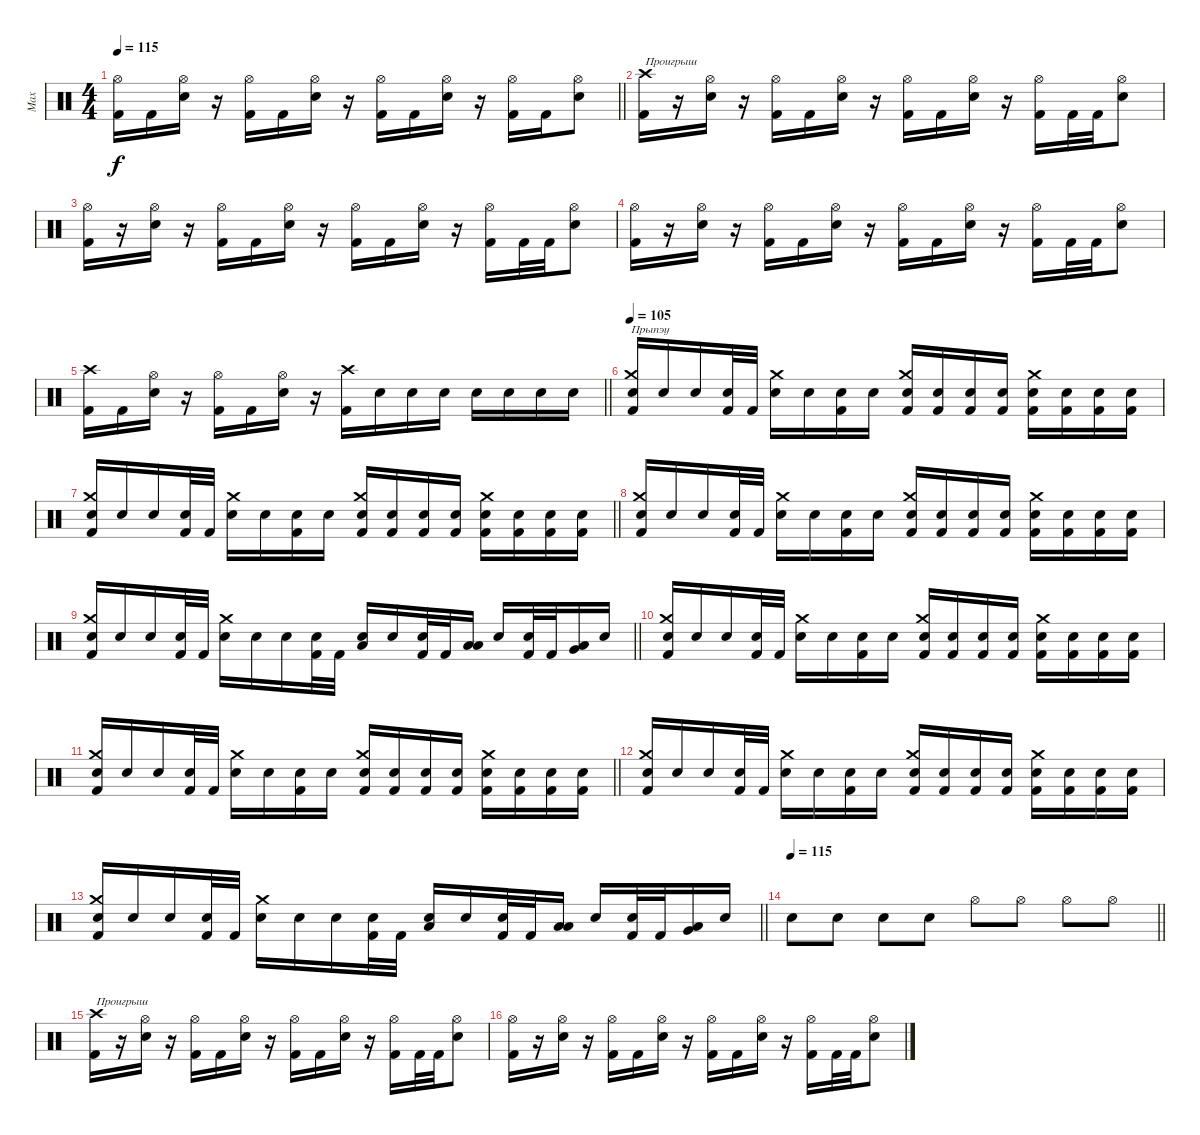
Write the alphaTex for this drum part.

\track ("Max" "Max") {instrument percussion}
\staff {score}
\articulation defaults
\ts (4 4)
\tempo 115
\clef neutral
\barLineRight lightlight
\ks c
("Hi-Hat (open)" "Kick (hit) 2").16{dy f} "Kick (hit) 2".16 ("Hi-Hat (open)" "Electric Snare (hit)").16 r.16 ("Hi-Hat (open)" "Kick (hit) 2").16 "Kick (hit) 2".16 ("Hi-Hat (open)" "Electric Snare (hit)").16 r.16 ("Hi-Hat (open)" "Kick (hit) 2").16 "Kick (hit) 2".16 ("Hi-Hat (open)" "Electric Snare (hit)").16 r.16 ("Hi-Hat (open)" "Kick (hit) 2").16 "Kick (hit) 2".16 ("Hi-Hat (open)" "Electric Snare (hit)").8 |
("Crash high (hit)" "Kick (hit) 2").16{txt "Проигрыш"} r.16 ("Hi-Hat (open)" "Electric Snare (hit)").16 r.16 ("Hi-Hat (open)" "Kick (hit) 2").16 "Kick (hit) 2".16 ("Hi-Hat (open)" "Electric Snare (hit)").16 r.16 ("Hi-Hat (open)" "Kick (hit) 2").16 "Kick (hit) 2".16 ("Hi-Hat (open)" "Electric Snare (hit)").16 r.16 ("Hi-Hat (open)" "Kick (hit) 2").16 "Kick (hit) 2".32 "Kick (hit) 2".32 ("Hi-Hat (open)" "Electric Snare (hit)").8 |
("Hi-Hat (open)" "Kick (hit) 2").16 r.16 ("Hi-Hat (open)" "Electric Snare (hit)").16 r.16 ("Hi-Hat (open)" "Kick (hit) 2").16 "Kick (hit) 2".16 ("Hi-Hat (open)" "Electric Snare (hit)").16 r.16 ("Hi-Hat (open)" "Kick (hit) 2").16 "Kick (hit) 2".16 ("Hi-Hat (open)" "Electric Snare (hit)").16 r.16 ("Hi-Hat (open)" "Kick (hit) 2").16 "Kick (hit) 2".32 "Kick (hit) 2".32 ("Hi-Hat (open)" "Electric Snare (hit)").8 |
("Hi-Hat (open)" "Kick (hit) 2").16 r.16 ("Hi-Hat (open)" "Electric Snare (hit)").16 r.16 ("Hi-Hat (open)" "Kick (hit) 2").16 "Kick (hit) 2".16 ("Hi-Hat (open)" "Electric Snare (hit)").16 r.16 ("Hi-Hat (open)" "Kick (hit) 2").16 "Kick (hit) 2".16 ("Hi-Hat (open)" "Electric Snare (hit)").16 r.16 ("Hi-Hat (open)" "Kick (hit) 2").16 "Kick (hit) 2".32 "Kick (hit) 2".32 ("Hi-Hat (open)" "Electric Snare (hit)").8 |
\barLineRight lightlight
("Crash high (hit)" "Kick (hit) 2").16 "Kick (hit) 2".16 ("Hi-Hat (open)" "Electric Snare (hit)").16 r.16 ("Hi-Hat (open)" "Kick (hit) 2").16 "Kick (hit) 2".16 ("Hi-Hat (open)" "Electric Snare (hit)").16 r.16 ("Crash high (hit)" "Kick (hit) 2").16 "Electric Snare (hit)".16 "Electric Snare (hit)".16 "Electric Snare (hit)".16 "Electric Snare (hit)".16 "Electric Snare (hit)".16 "Electric Snare (hit)".16 "Electric Snare (hit)".16 |
\tempo 105
("Crash medium (hit)" "Snare (hit)" "Kick (hit) 2").16{txt "Прыпэу "} "Snare (hit)".16 "Snare (hit)".16 ("Snare (hit)" "Kick (hit) 2").32 "Kick (hit) 2".32 ("Crash medium (hit)" "Electric Snare (hit)").16 "Snare (hit)".16 ("Snare (hit)" "Kick (hit) 2").16 "Snare (hit)".16 ("Crash medium (hit)" "Snare (hit)" "Kick (hit) 2").16 ("Snare (hit)" "Kick (hit) 2").16 ("Snare (hit)" "Kick (hit) 2").16 ("Snare (hit)" "Kick (hit) 2").16 ("Crash medium (hit)" "Electric Snare (hit)" "Kick (hit) 2").16 ("Snare (hit)" "Kick (hit) 2").16 ("Snare (hit)" "Kick (hit) 2").16 ("Snare (hit)" "Kick (hit) 2").16 |
\barLineRight lightlight
("Crash medium (hit)" "Snare (hit)" "Kick (hit) 2").16 "Snare (hit)".16 "Snare (hit)".16 ("Snare (hit)" "Kick (hit) 2").32 "Kick (hit) 2".32 ("Crash medium (hit)" "Electric Snare (hit)").16 "Snare (hit)".16 ("Snare (hit)" "Kick (hit) 2").16 "Snare (hit)".16 ("Crash medium (hit)" "Snare (hit)" "Kick (hit) 2").16 ("Snare (hit)" "Kick (hit) 2").16 ("Snare (hit)" "Kick (hit) 2").16 ("Snare (hit)" "Kick (hit) 2").16 ("Crash medium (hit)" "Electric Snare (hit)" "Kick (hit) 2").16 ("Snare (hit)" "Kick (hit) 2").16 ("Snare (hit)" "Kick (hit) 2").16 ("Snare (hit)" "Kick (hit) 2").16 |
("Crash medium (hit)" "Snare (hit)" "Kick (hit) 2").16 "Snare (hit)".16 "Snare (hit)".16 ("Snare (hit)" "Kick (hit) 2").32 "Kick (hit) 2".32 ("Crash medium (hit)" "Electric Snare (hit)").16 "Snare (hit)".16 ("Snare (hit)" "Kick (hit) 2").16 "Snare (hit)".16 ("Crash medium (hit)" "Snare (hit)" "Kick (hit) 2").16 ("Snare (hit)" "Kick (hit) 2").16 ("Snare (hit)" "Kick (hit) 2").16 ("Snare (hit)" "Kick (hit) 2").16 ("Crash medium (hit)" "Electric Snare (hit)" "Kick (hit) 2").16 ("Snare (hit)" "Kick (hit) 2").16 ("Snare (hit)" "Kick (hit) 2").16 ("Snare (hit)" "Kick (hit) 2").16 |
\barLineRight lightlight
("Crash medium (hit)" "Snare (hit)" "Kick (hit) 2").16 "Snare (hit)".16 "Snare (hit)".16 ("Snare (hit)" "Kick (hit) 2").32 "Kick (hit) 2".32 ("Crash medium (hit)" "Electric Snare (hit)").16 "Snare (hit)".16 "Snare (hit)".16 ("Snare (hit)" "Kick (hit) 2").32 "Kick (hit) 2".32 ("Low Floor Tom (hit)" "Electric Snare (hit)").16 "Snare (hit)".16 ("Snare (hit)" "Kick (hit) 2").32 "Kick (hit) 2".32 ("Low Floor Tom (hit)" "Low Tom (hit)").16 "Snare (hit)".16 ("Snare (hit)" "Kick (hit) 2").32 "Kick (hit) 2".32 ("Low Floor Tom (hit)" "Very Low Tom (hit)").16 "Snare (hit)".16 |
("Crash medium (hit)" "Snare (hit)" "Kick (hit) 2").16 "Snare (hit)".16 "Snare (hit)".16 ("Snare (hit)" "Kick (hit) 2").32 "Kick (hit) 2".32 ("Crash medium (hit)" "Electric Snare (hit)").16 "Snare (hit)".16 ("Snare (hit)" "Kick (hit) 2").16 "Snare (hit)".16 ("Crash medium (hit)" "Snare (hit)" "Kick (hit) 2").16 ("Snare (hit)" "Kick (hit) 2").16 ("Snare (hit)" "Kick (hit) 2").16 ("Snare (hit)" "Kick (hit) 2").16 ("Crash medium (hit)" "Electric Snare (hit)" "Kick (hit) 2").16 ("Snare (hit)" "Kick (hit) 2").16 ("Snare (hit)" "Kick (hit) 2").16 ("Snare (hit)" "Kick (hit) 2").16 |
\barLineRight lightlight
("Crash medium (hit)" "Snare (hit)" "Kick (hit) 2").16 "Snare (hit)".16 "Snare (hit)".16 ("Snare (hit)" "Kick (hit) 2").32 "Kick (hit) 2".32 ("Crash medium (hit)" "Electric Snare (hit)").16 "Snare (hit)".16 ("Snare (hit)" "Kick (hit) 2").16 "Snare (hit)".16 ("Crash medium (hit)" "Snare (hit)" "Kick (hit) 2").16 ("Snare (hit)" "Kick (hit) 2").16 ("Snare (hit)" "Kick (hit) 2").16 ("Snare (hit)" "Kick (hit) 2").16 ("Crash medium (hit)" "Electric Snare (hit)" "Kick (hit) 2").16 ("Snare (hit)" "Kick (hit) 2").16 ("Snare (hit)" "Kick (hit) 2").16 ("Snare (hit)" "Kick (hit) 2").16 |
("Crash medium (hit)" "Snare (hit)" "Kick (hit) 2").16 "Snare (hit)".16 "Snare (hit)".16 ("Snare (hit)" "Kick (hit) 2").32 "Kick (hit) 2".32 ("Crash medium (hit)" "Electric Snare (hit)").16 "Snare (hit)".16 ("Snare (hit)" "Kick (hit) 2").16 "Snare (hit)".16 ("Crash medium (hit)" "Snare (hit)" "Kick (hit) 2").16 ("Snare (hit)" "Kick (hit) 2").16 ("Snare (hit)" "Kick (hit) 2").16 ("Snare (hit)" "Kick (hit) 2").16 ("Crash medium (hit)" "Electric Snare (hit)" "Kick (hit) 2").16 ("Snare (hit)" "Kick (hit) 2").16 ("Snare (hit)" "Kick (hit) 2").16 ("Snare (hit)" "Kick (hit) 2").16 |
\barLineRight lightlight
("Crash medium (hit)" "Snare (hit)" "Kick (hit) 2").16 "Snare (hit)".16 "Snare (hit)".16 ("Snare (hit)" "Kick (hit) 2").32 "Kick (hit) 2".32 ("Crash medium (hit)" "Electric Snare (hit)").16 "Snare (hit)".16 "Snare (hit)".16 ("Snare (hit)" "Kick (hit) 2").32 "Kick (hit) 2".32 ("Low Floor Tom (hit)" "Electric Snare (hit)").16 "Snare (hit)".16 ("Snare (hit)" "Kick (hit) 2").32 "Kick (hit) 2".32 ("Low Floor Tom (hit)" "Low Tom (hit)").16 "Snare (hit)".16 ("Snare (hit)" "Kick (hit) 2").32 "Kick (hit) 2".32 ("Low Floor Tom (hit)" "Very Low Tom (hit)").16 "Snare (hit)".16 |
\tempo 115
\barLineRight lightlight "Snare (hit)".8 "Snare (hit)".8 "Snare (hit)".8 "Snare (hit)".8 "Hi-Hat (open)".8 "Hi-Hat (open)".8 "Hi-Hat (open)".8 "Hi-Hat (open)".8
|
("Crash high (hit)" "Kick (hit) 2").16{txt "Проигрыш"} r.16 ("Hi-Hat (open)" "Electric Snare (hit)").16 r.16 ("Hi-Hat (open)" "Kick (hit) 2").16 "Kick (hit) 2".16 ("Hi-Hat (open)" "Electric Snare (hit)").16 r.16 ("Hi-Hat (open)" "Kick (hit) 2").16 "Kick (hit) 2".16 ("Hi-Hat (open)" "Electric Snare (hit)").16 r.16 ("Hi-Hat (open)" "Kick (hit) 2").16 "Kick (hit) 2".32 "Kick (hit) 2".32 ("Hi-Hat (open)" "Electric Snare (hit)").8 |
("Hi-Hat (open)" "Kick (hit) 2").16 r.16 ("Hi-Hat (open)" "Electric Snare (hit)").16 r.16 ("Hi-Hat (open)" "Kick (hit) 2").16 "Kick (hit) 2".16 ("Hi-Hat (open)" "Electric Snare (hit)").16 r.16 ("Hi-Hat (open)" "Kick (hit) 2").16 "Kick (hit) 2".16 ("Hi-Hat (open)" "Electric Snare (hit)").16 r.16 ("Hi-Hat (open)" "Kick (hit) 2").16 "Kick (hit) 2".32 "Kick (hit) 2".32 ("Hi-Hat (open)" "Electric Snare (hit)").8
